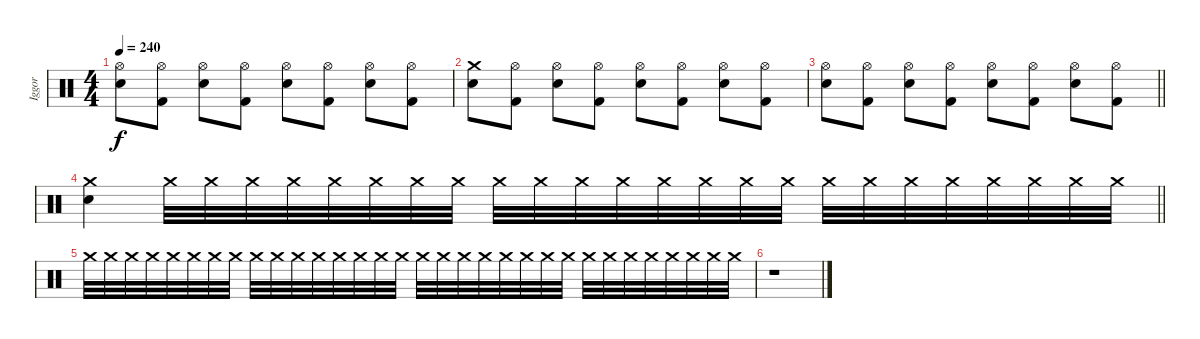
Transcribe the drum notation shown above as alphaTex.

\track ("Iggor" "Iggor") {instrument percussion}
\staff {score}
\articulation defaults
\ts (4 4)
\tempo 240
\clef neutral
\ks c
("Hi-Hat (open)" "Snare (hit) 2").8{dy f} ("Hi-Hat (open)" "Kick (hit) 2").8 ("Hi-Hat (open)" "Snare (hit) 2").8 ("Hi-Hat (open)" "Kick (hit) 2").8 ("Hi-Hat (open)" "Snare (hit) 2").8 ("Hi-Hat (open)" "Kick (hit) 2").8 ("Hi-Hat (open)" "Snare (hit) 2").8 ("Hi-Hat (open)" "Kick (hit) 2").8 |
("Crash medium (hit)" "Snare (hit) 2").8 ("Hi-Hat (open)" "Kick (hit) 2").8 ("Hi-Hat (open)" "Snare (hit) 2").8 ("Hi-Hat (open)" "Kick (hit) 2").8 ("Hi-Hat (open)" "Snare (hit) 2").8 ("Hi-Hat (open)" "Kick (hit) 2").8 ("Hi-Hat (open)" "Snare (hit) 2").8 ("Hi-Hat (open)" "Kick (hit) 2").8 |
\barLineRight lightlight
("Hi-Hat (open)" "Snare (hit) 2").8 ("Hi-Hat (open)" "Kick (hit) 2").8 ("Hi-Hat (open)" "Snare (hit) 2").8 ("Hi-Hat (open)" "Kick (hit) 2").8 ("Hi-Hat (open)" "Snare (hit) 2").8 ("Hi-Hat (open)" "Kick (hit) 2").8 ("Hi-Hat (open)" "Snare (hit) 2").8 ("Hi-Hat (open)" "Kick (hit) 2").8 |
\barLineRight lightlight
("Crash medium (hit)" "Snare (hit) 2").4 "Crash medium (hit)".32{volume 0} "Crash medium (hit)".32{volume 16} "Crash medium (hit)".32 "Crash medium (hit)".32 "Crash medium (hit)".32 "Crash medium (hit)".32 "Crash medium (hit)".32 "Crash medium (hit)".32 "Crash medium (hit)".32 "Crash medium (hit)".32 "Crash medium (hit)".32 "Crash medium (hit)".32 "Crash medium (hit)".32 "Crash medium (hit)".32 "Crash medium (hit)".32 "Crash medium (hit)".32 "Crash medium (hit)".32 "Crash medium (hit)".32 "Crash medium (hit)".32 "Crash medium (hit)".32 "Crash medium (hit)".32 "Crash medium (hit)".32 "Crash medium (hit)".32 "Crash medium (hit)".32 |
"Crash medium (hit)".32 "Crash medium (hit)".32 "Crash medium (hit)".32 "Crash medium (hit)".32 "Crash medium (hit)".32 "Crash medium (hit)".32 "Crash medium (hit)".32 "Crash medium (hit)".32 "Crash medium (hit)".32 "Crash medium (hit)".32 "Crash medium (hit)".32 "Crash medium (hit)".32 "Crash medium (hit)".32 "Crash medium (hit)".32 "Crash medium (hit)".32 "Crash medium (hit)".32 "Crash medium (hit)".32 "Crash medium (hit)".32 "Crash medium (hit)".32 "Crash medium (hit)".32 "Crash medium (hit)".32 "Crash medium (hit)".32 "Crash medium (hit)".32 "Crash medium (hit)".32 "Crash medium (hit)".32 "Crash medium (hit)".32 "Crash medium (hit)".32 "Crash medium (hit)".32 "Crash medium (hit)".32 "Crash medium (hit)".32 "Crash medium (hit)".32 "Crash medium (hit)".32 |
r.1{volume 0}
